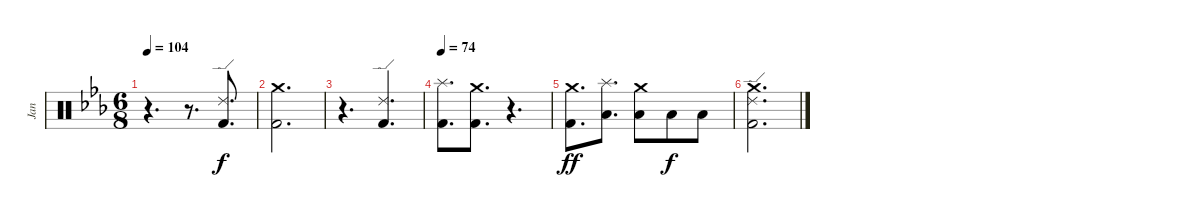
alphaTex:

\track ("Jan" "Jan") {instrument percussion}
\staff {score}
\articulation defaults
\ts (6 8)
\tempo 104
\clef neutral
\ks eb
r.4{d dy f} r.8{d} ("Ride (edge) 2" "Kick (hit) 2").8{d} |
("Crash medium (hit)" "Kick (hit) 2").2{d} |
r.4{d} ("Ride (edge) 2" "Kick (hit) 2").4{d} |
\tempo 74
("Splash (hit)" "Kick (hit) 2").8{d} ("Crash medium (hit)" "Kick (hit) 2").8{d} r.4{d} |
("Crash medium (hit)" "Kick (hit) 2").8{d dy ff} ("Splash (hit)" "Low Tom (hit)").8{d} ("Crash medium (hit)" "Low Floor Tom (hit)").8 "Low Floor Tom (hit)".8{dy f} "Low Floor Tom (hit)".8 |
("Crash medium (hit)" "Ride (edge) 2" "Kick (hit) 2").2{d}
